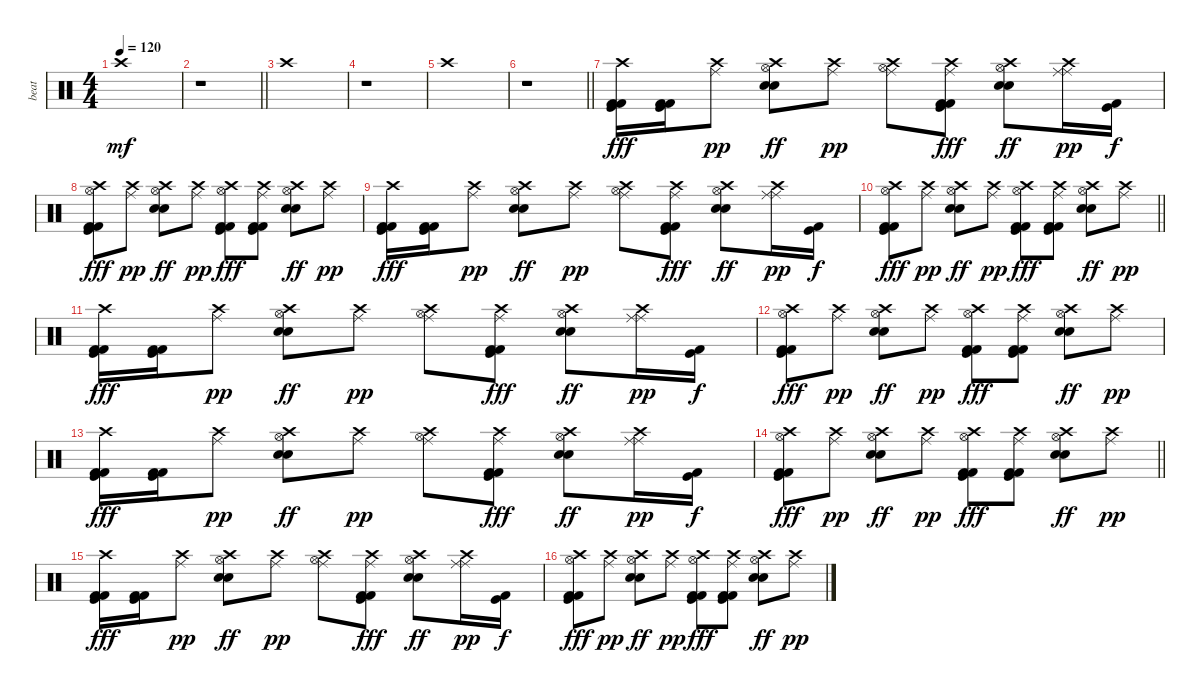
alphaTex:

\track ("beat" "beat") {instrument percussion}
\staff {score}
\articulation defaults
\ts (4 4)
\tempo 120
\clef neutral
\ks c "Crash high (hit)".1{dy mf}
|
\barLineRight lightlight
r.1 |
"Crash high (hit)".1 |
r.1 |
"Crash high (hit)".1 |
\barLineRight lightlight
r.1 |
("Crash high (hit)" "Kick (hit) 2" "Kick (hit) 2" "Kick (hit)").16{dy fff} ("Kick (hit) 2" "Kick (hit) 2" "Kick (hit)").16 ("Crash high (hit)" "Ride (middle)").8{dy pp} ("Crash high (hit)" "Hi-Hat (open)" "Snare (hit) 2" "Electric Snare (hit)").8{dy ff} ("Crash high (hit)" "Ride (middle)").8{dy pp} ("Crash high (hit)" "Hi-Hat (open)" "Ride (middle)").8 ("Crash high (hit)" "Ride (middle)" "Kick (hit) 2" "Kick (hit) 2" "Kick (hit)").8{dy fff} ("Crash high (hit)" "Hi-Hat (open)" "Snare (hit) 2" "Electric Snare (hit)").8{dy ff} ("Crash high (hit)" "Ride (middle)" "Ride (middle)").16{dy pp} ("Kick (hit) 2" "Kick (hit)").16{dy f} |
("Crash high (hit)" "Hi-Hat (open)" "Kick (hit) 2" "Kick (hit) 2" "Kick (hit)").8{dy fff} ("Crash high (hit)" "Ride (middle)").8{dy pp} ("Crash high (hit)" "Hi-Hat (open)" "Snare (hit) 2" "Electric Snare (hit)").8{dy ff} ("Crash high (hit)" "Ride (middle)").8{dy pp} ("Crash high (hit)" "Hi-Hat (open)" "Kick (hit) 2" "Kick (hit) 2" "Kick (hit)").8{dy fff} ("Crash high (hit)" "Ride (middle)" "Kick (hit) 2" "Kick (hit) 2" "Kick (hit)").8 ("Crash high (hit)" "Hi-Hat (open)" "Snare (hit) 2" "Electric Snare (hit)").8{dy ff} ("Crash high (hit)" "Ride (middle)").8{dy pp} |
("Crash high (hit)" "Kick (hit) 2" "Kick (hit) 2" "Kick (hit)").16{dy fff} ("Kick (hit) 2" "Kick (hit) 2" "Kick (hit)").16 ("Crash high (hit)" "Ride (middle)").8{dy pp} ("Crash high (hit)" "Hi-Hat (open)" "Snare (hit) 2" "Electric Snare (hit)").8{dy ff} ("Crash high (hit)" "Ride (middle)").8{dy pp} ("Crash high (hit)" "Hi-Hat (open)" "Ride (middle)").8 ("Crash high (hit)" "Ride (middle)" "Kick (hit) 2" "Kick (hit) 2" "Kick (hit)").8{dy fff} ("Crash high (hit)" "Hi-Hat (open)" "Snare (hit) 2" "Electric Snare (hit)").8{dy ff} ("Crash high (hit)" "Ride (middle)" "Ride (middle)").16{dy pp} ("Kick (hit) 2" "Kick (hit)").16{dy f} |
\barLineRight lightlight
("Crash high (hit)" "Hi-Hat (open)" "Kick (hit) 2" "Kick (hit) 2" "Kick (hit)").8{dy fff} ("Crash high (hit)" "Ride (middle)").8{dy pp} ("Crash high (hit)" "Hi-Hat (open)" "Snare (hit) 2" "Electric Snare (hit)").8{dy ff} ("Crash high (hit)" "Ride (middle)").8{dy pp} ("Crash high (hit)" "Hi-Hat (open)" "Kick (hit) 2" "Kick (hit) 2" "Kick (hit)").8{dy fff} ("Crash high (hit)" "Ride (middle)" "Kick (hit) 2" "Kick (hit) 2" "Kick (hit)").8 ("Crash high (hit)" "Hi-Hat (open)" "Snare (hit) 2" "Electric Snare (hit)").8{dy ff} ("Crash high (hit)" "Ride (middle)").8{dy pp} |
("Crash high (hit)" "Kick (hit) 2" "Kick (hit) 2" "Kick (hit)").16{dy fff} ("Kick (hit) 2" "Kick (hit) 2" "Kick (hit)").16 ("Crash high (hit)" "Ride (middle)").8{dy pp} ("Crash high (hit)" "Hi-Hat (open)" "Snare (hit) 2" "Electric Snare (hit)").8{dy ff} ("Crash high (hit)" "Ride (middle)").8{dy pp} ("Crash high (hit)" "Hi-Hat (open)" "Ride (middle)").8 ("Crash high (hit)" "Ride (middle)" "Kick (hit) 2" "Kick (hit) 2" "Kick (hit)").8{dy fff} ("Crash high (hit)" "Hi-Hat (open)" "Snare (hit) 2" "Electric Snare (hit)").8{dy ff} ("Crash high (hit)" "Ride (middle)" "Ride (middle)").16{dy pp} ("Kick (hit) 2" "Kick (hit)").16{dy f} |
("Crash high (hit)" "Hi-Hat (open)" "Kick (hit) 2" "Kick (hit) 2" "Kick (hit)").8{dy fff} ("Crash high (hit)" "Ride (middle)").8{dy pp} ("Crash high (hit)" "Hi-Hat (open)" "Snare (hit) 2" "Electric Snare (hit)").8{dy ff} ("Crash high (hit)" "Ride (middle)").8{dy pp} ("Crash high (hit)" "Hi-Hat (open)" "Kick (hit) 2" "Kick (hit) 2" "Kick (hit)").8{dy fff} ("Crash high (hit)" "Ride (middle)" "Kick (hit) 2" "Kick (hit) 2" "Kick (hit)").8 ("Crash high (hit)" "Hi-Hat (open)" "Snare (hit) 2" "Electric Snare (hit)").8{dy ff} ("Crash high (hit)" "Ride (middle)").8{dy pp} |
("Crash high (hit)" "Kick (hit) 2" "Kick (hit) 2" "Kick (hit)").16{dy fff} ("Kick (hit) 2" "Kick (hit) 2" "Kick (hit)").16 ("Crash high (hit)" "Ride (middle)").8{dy pp} ("Crash high (hit)" "Hi-Hat (open)" "Snare (hit) 2" "Electric Snare (hit)").8{dy ff} ("Crash high (hit)" "Ride (middle)").8{dy pp} ("Crash high (hit)" "Hi-Hat (open)" "Ride (middle)").8 ("Crash high (hit)" "Ride (middle)" "Kick (hit) 2" "Kick (hit) 2" "Kick (hit)").8{dy fff} ("Crash high (hit)" "Hi-Hat (open)" "Snare (hit) 2" "Electric Snare (hit)").8{dy ff} ("Crash high (hit)" "Ride (middle)" "Ride (middle)").16{dy pp} ("Kick (hit) 2" "Kick (hit)").16{dy f} |
\barLineRight lightlight
("Crash high (hit)" "Hi-Hat (open)" "Kick (hit) 2" "Kick (hit) 2" "Kick (hit)").8{dy fff} ("Crash high (hit)" "Ride (middle)").8{dy pp} ("Crash high (hit)" "Hi-Hat (open)" "Snare (hit) 2" "Electric Snare (hit)").8{dy ff} ("Crash high (hit)" "Ride (middle)").8{dy pp} ("Crash high (hit)" "Hi-Hat (open)" "Kick (hit) 2" "Kick (hit) 2" "Kick (hit)").8{dy fff} ("Crash high (hit)" "Ride (middle)" "Kick (hit) 2" "Kick (hit) 2" "Kick (hit)").8 ("Crash high (hit)" "Hi-Hat (open)" "Snare (hit) 2" "Electric Snare (hit)").8{dy ff} ("Crash high (hit)" "Ride (middle)").8{dy pp} |
("Crash high (hit)" "Kick (hit) 2" "Kick (hit) 2" "Kick (hit)").16{dy fff} ("Kick (hit) 2" "Kick (hit) 2" "Kick (hit)").16 ("Crash high (hit)" "Ride (middle)").8{dy pp} ("Crash high (hit)" "Hi-Hat (open)" "Snare (hit) 2" "Electric Snare (hit)").8{dy ff} ("Crash high (hit)" "Ride (middle)").8{dy pp} ("Crash high (hit)" "Hi-Hat (open)" "Ride (middle)").8 ("Crash high (hit)" "Ride (middle)" "Kick (hit) 2" "Kick (hit) 2" "Kick (hit)").8{dy fff} ("Crash high (hit)" "Hi-Hat (open)" "Snare (hit) 2" "Electric Snare (hit)").8{dy ff} ("Crash high (hit)" "Ride (middle)" "Ride (middle)").16{dy pp} ("Kick (hit) 2" "Kick (hit)").16{dy f} |
("Crash high (hit)" "Hi-Hat (open)" "Kick (hit) 2" "Kick (hit) 2" "Kick (hit)").8{dy fff} ("Crash high (hit)" "Ride (middle)").8{dy pp} ("Crash high (hit)" "Hi-Hat (open)" "Snare (hit) 2" "Electric Snare (hit)").8{dy ff} ("Crash high (hit)" "Ride (middle)").8{dy pp} ("Crash high (hit)" "Hi-Hat (open)" "Kick (hit) 2" "Kick (hit) 2" "Kick (hit)").8{dy fff} ("Crash high (hit)" "Ride (middle)" "Kick (hit) 2" "Kick (hit) 2" "Kick (hit)").8 ("Crash high (hit)" "Hi-Hat (open)" "Snare (hit) 2" "Electric Snare (hit)").8{dy ff} ("Crash high (hit)" "Ride (middle)").8{dy pp}
